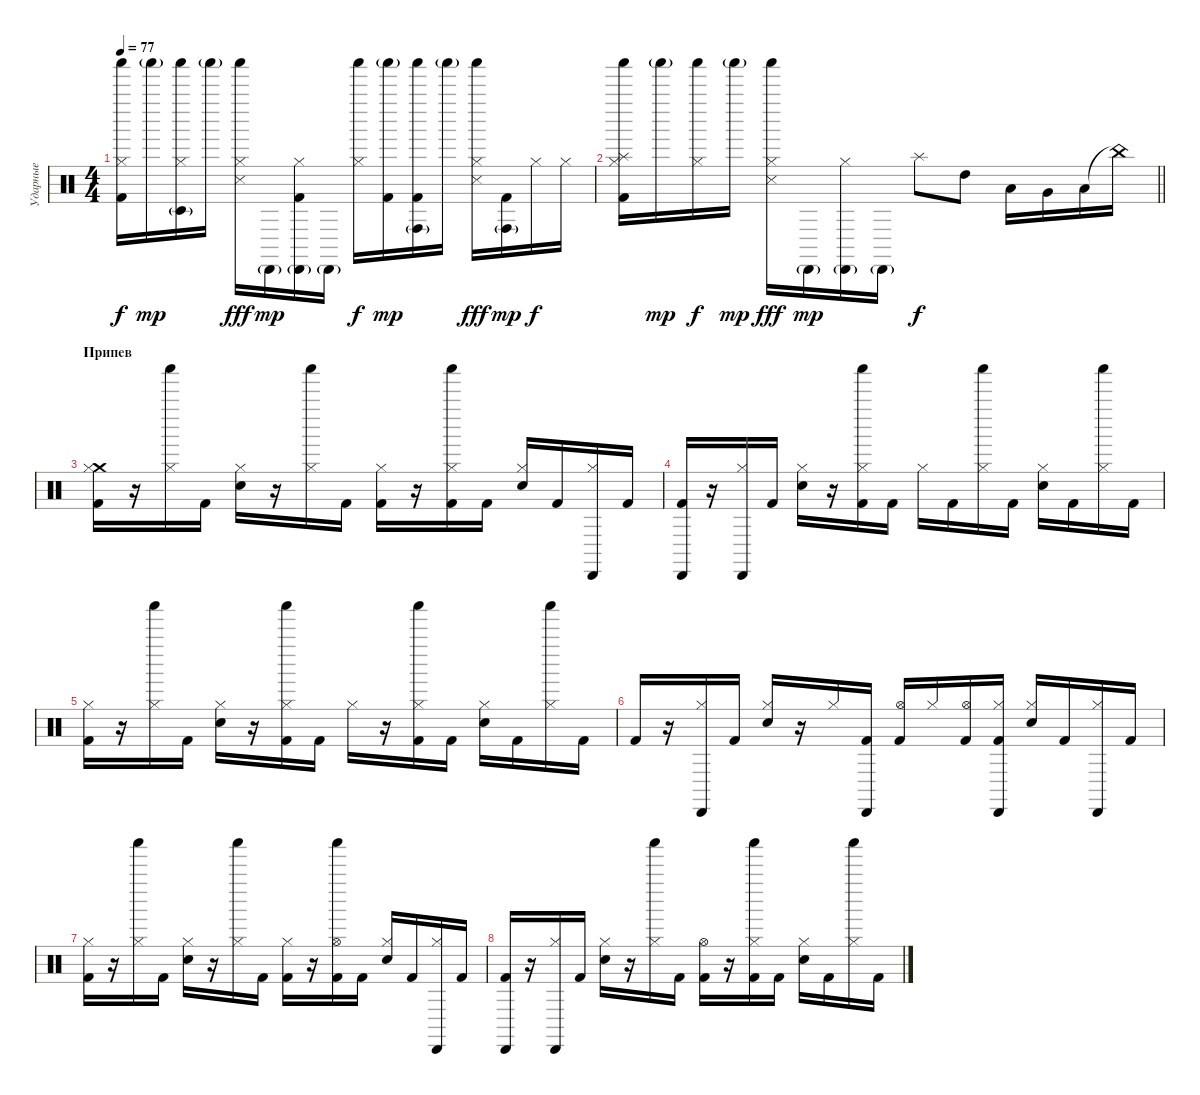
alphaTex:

\track ("Ударные" "Ударные") {instrument percussion}
\staff {score}
\articulation defaults
\ts (4 4)
\tempo 77
\clef neutral
\ks c
("Kick (hit) 2" "Shaker (hit)" "Hi-Hat (closed)").16{dy f} "Shaker (hit)"{g}.16{dy mp} ("Timbale low (hit)"{g} "Shaker (hit)" "Hi-Hat (closed)").16 "Shaker (hit)"{g}.16 ("Snare (side stick) 3" "Shaker (hit)" "Hi-Hat (closed)").16{dy fff} "Cabasa (hit)"{g}.16{dy mp} ("Kick (hit) 2" "Cabasa (hit)"{g} "Hi-Hat (closed)").16 "Cabasa (hit)"{g}.16 ("Shaker (hit)" "Hi-Hat (closed)").16{dy f} ("Shaker (hit)"{g} "Kick (hit) 2").16{dy mp} ("Conga high (hit)"{g} "Shaker (hit)" "Kick (hit) 2").16 "Shaker (hit)"{g}.16 ("Snare (side stick) 3" "Shaker (hit)" "Hi-Hat (closed)").16{dy fff} ("Conga high (hit)"{g} "Kick (hit) 2").16{dy mp} "Hi-Hat (closed)".16{dy f} "Hi-Hat (closed)".16 |
\barLineRight lightlight
("Splash (hit)" "Kick (hit) 2" "Shaker (hit)" "Hi-Hat (closed)").16 "Shaker (hit)"{g}.16{dy mp} ("Shaker (hit)" "Hi-Hat (closed)").16{dy f} "Shaker (hit)"{g}.16{dy mp} ("Snare (side stick) 3" "Shaker (hit)" "Hi-Hat (closed)").16{dy fff} "Cabasa (hit)"{g}.16{dy mp} ("Cabasa (hit)"{g} "Hi-Hat (closed)").16 "Cabasa (hit)"{g}.16 "Splash (hit)".8{dy f} "High Tom (hit)".8 "Low Tom (hit)".16 "Very Low Tom (hit)".16 "Low Floor Tom (hit)".16 "China (hit)"{t}.16 |
\section ("" "Припев")
("Crash medium (hit)" "Kick (hit) 2" "Hi-Hat (closed)").16 r.16 ("Hi-Hat (closed)" "Shaker (hit)").16 "Kick (hit) 2".16 ("Electric Snare (hit)" "Hi-Hat (closed)").16 r.16 ("Hi-Hat (closed)" "Shaker (hit)").16 "Kick (hit) 2".16 ("Kick (hit) 2" "Hi-Hat (closed)").16 r.16 ("Kick (hit) 2" "Hi-Hat (closed)" "Shaker (hit)").16 "Kick (hit) 2".16 ("Electric Snare (hit)" "Hi-Hat (closed)").16 "Kick (hit) 2".16 ("Hi-Hat (closed)" "Cabasa (hit)").16 "Kick (hit) 2".16 |
("Kick (hit) 2" "Cabasa (hit)").16 r.16 ("Hi-Hat (closed)" "Cabasa (hit)").16 "Kick (hit) 2".16 ("Electric Snare (hit)" "Hi-Hat (closed)").16 r.16 ("Kick (hit) 2" "Hi-Hat (closed)" "Shaker (hit)").16 "Kick (hit) 2".16 "Hi-Hat (closed)".16 "Kick (hit) 2".16 ("Hi-Hat (closed)" "Shaker (hit)").16 "Kick (hit) 2".16 ("Electric Snare (hit)" "Hi-Hat (closed)").16 "Kick (hit) 2".16 ("Hi-Hat (closed)" "Shaker (hit)").16 "Kick (hit) 2".16 |
("Kick (hit) 2" "Hi-Hat (closed)").16 r.16 ("Hi-Hat (closed)" "Shaker (hit)").16 "Kick (hit) 2".16 ("Electric Snare (hit)" "Hi-Hat (closed)").16 r.16 ("Kick (hit) 2" "Hi-Hat (closed)" "Shaker (hit)").16 "Kick (hit) 2".16 "Hi-Hat (closed)".16 r.16 ("Kick (hit) 2" "Hi-Hat (closed)" "Shaker (hit)").16 "Kick (hit) 2".16 ("Electric Snare (hit)" "Hi-Hat (closed)").16 "Kick (hit) 2".16 ("Hi-Hat (closed)" "Shaker (hit)").16 "Kick (hit) 2".16 |
"Kick (hit) 2".16 r.16 ("Hi-Hat (closed)" "Cabasa (hit)").16 "Kick (hit) 2".16 ("Electric Snare (hit)" "Hi-Hat (closed)").16 r.16 "Hi-Hat (closed)".16 ("Kick (hit) 2" "Cabasa (hit)").16 ("Hi-Hat (open)" "Kick (hit) 2").16 "Hi-Hat (closed)".16 ("Hi-Hat (open)" "Kick (hit) 2").16 ("Hi-Hat (closed)" "Kick (hit) 2" "Cabasa (hit)").16 ("Electric Snare (hit)" "Hi-Hat (closed)").16 "Kick (hit) 2".16 ("Hi-Hat (closed)" "Cabasa (hit)").16 "Kick (hit) 2".16 |
("Kick (hit) 2" "Hi-Hat (closed)").16 r.16 ("Hi-Hat (closed)" "Shaker (hit)").16 "Kick (hit) 2".16 ("Electric Snare (hit)" "Hi-Hat (closed)").16 r.16 ("Hi-Hat (closed)" "Shaker (hit)").16 "Kick (hit) 2".16 ("Kick (hit) 2" "Hi-Hat (closed)").16 r.16 ("Hi-Hat (open)" "Kick (hit) 2" "Shaker (hit)").16 "Kick (hit) 2".16 ("Electric Snare (hit)" "Hi-Hat (closed)").16 "Kick (hit) 2".16 ("Hi-Hat (closed)" "Cabasa (hit)").16 "Kick (hit) 2".16 |
("Kick (hit) 2" "Cabasa (hit)").16 r.16 ("Hi-Hat (closed)" "Cabasa (hit)").16 "Kick (hit) 2".16 ("Electric Snare (hit)" "Hi-Hat (closed)").16 r.16 ("Hi-Hat (closed)" "Shaker (hit)").16 "Kick (hit) 2".16 ("Hi-Hat (open)" "Kick (hit) 2").16 r.16 ("Kick (hit) 2" "Hi-Hat (closed)" "Shaker (hit)").16 "Kick (hit) 2".16 ("Electric Snare (hit)" "Hi-Hat (closed)").16 "Kick (hit) 2".16 ("Hi-Hat (closed)" "Shaker (hit)").16 "Kick (hit) 2".16
